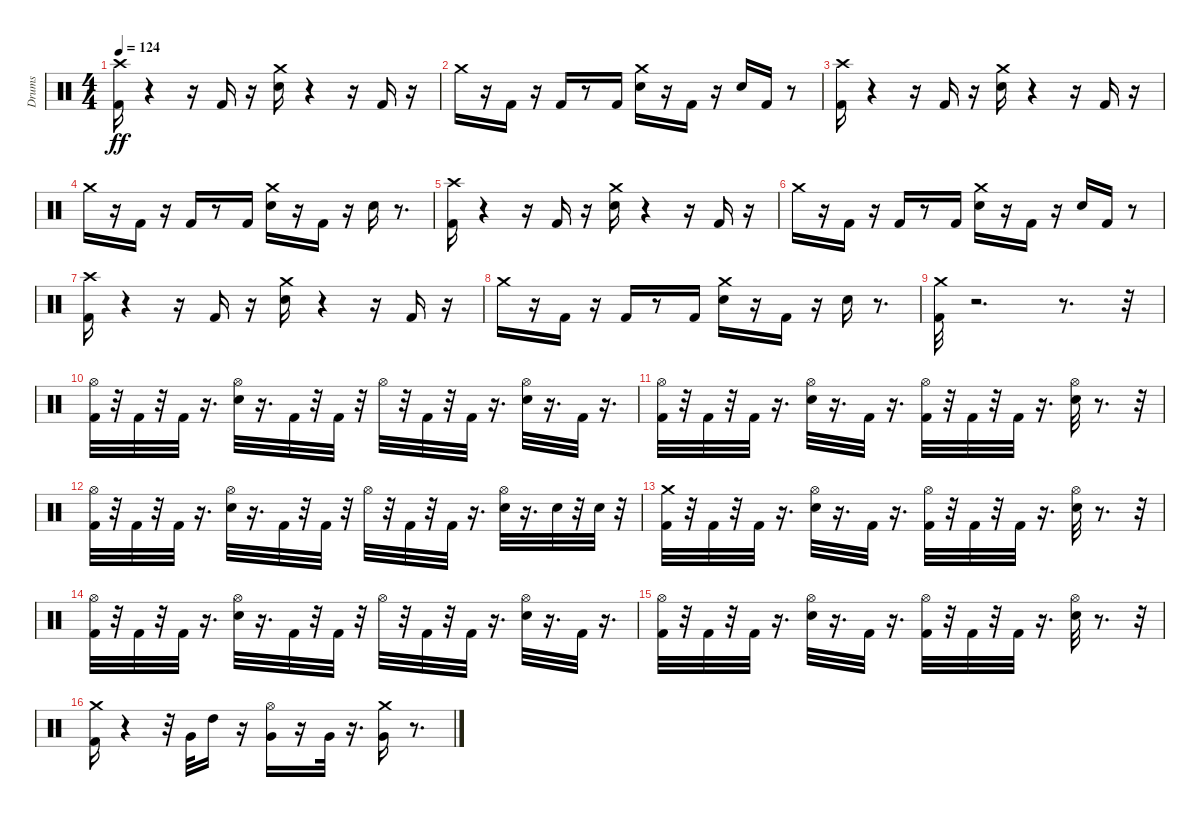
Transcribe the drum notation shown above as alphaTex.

\track ("Drums" "Drums") {instrument percussion}
\staff {score}
\articulation defaults
\ts (4 4)
\tempo 124
\clef neutral
\ks c
("Crash high (hit)" "Kick (hit) 2").16{dy ff} r.4 r.16 "Kick (hit) 2".16 r.16 ("Crash medium (hit)" "Electric Snare (hit)").16 r.4 r.16 "Kick (hit) 2".16 r.16 |
"Crash medium (hit)".16 r.16 "Kick (hit) 2".16 r.16 "Kick (hit) 2".16 r.8 "Kick (hit) 2".16 ("Crash medium (hit)" "Electric Snare (hit)").16 r.16 "Kick (hit) 2".16 r.16 "Electric Snare (hit)".16 "Kick (hit) 2".16 r.8 |
("Kick (hit) 2" "Crash high (hit)").16 r.4 r.16 "Kick (hit) 2".16 r.16 ("Crash medium (hit)" "Electric Snare (hit)").16 r.4 r.16 "Kick (hit) 2".16 r.16 |
"Crash medium (hit)".16 r.16 "Kick (hit) 2".16 r.16 "Kick (hit) 2".16 r.8 "Kick (hit) 2".16 ("Crash medium (hit)" "Electric Snare (hit)").16 r.16 "Kick (hit) 2".16 r.16 "Electric Snare (hit)".16 r.8{d} |
("Crash high (hit)" "Kick (hit) 2").16 r.4 r.16 "Kick (hit) 2".16 r.16 ("Crash medium (hit)" "Electric Snare (hit)").16 r.4 r.16 "Kick (hit) 2".16 r.16 |
"Crash medium (hit)".16 r.16 "Kick (hit) 2".16 r.16 "Kick (hit) 2".16 r.8 "Kick (hit) 2".16 ("Crash medium (hit)" "Electric Snare (hit)").16 r.16 "Kick (hit) 2".16 r.16 "Electric Snare (hit)".16 "Kick (hit) 2".16 r.8 |
("Crash high (hit)" "Kick (hit) 2").16 r.4 r.16 "Kick (hit) 2".16 r.16 ("Crash medium (hit)" "Electric Snare (hit)").16 r.4 r.16 "Kick (hit) 2".16 r.16 |
"Crash medium (hit)".16 r.16 "Kick (hit) 2".16 r.16 "Kick (hit) 2".16 r.8 "Kick (hit) 2".16 ("Crash medium (hit)" "Electric Snare (hit)").16 r.16 "Kick (hit) 2".16 r.16 "Electric Snare (hit)".16 r.8{d} |
("Crash medium (hit)" "Kick (hit) 2").32 r.2{d} r.8{d} r.32 |
("Kick (hit) 2" "Hi-Hat (open)").32 r.32 "Kick (hit) 2".32 r.32 "Kick (hit) 2".32 r.16{d} ("Electric Snare (hit)" "Hi-Hat (open)").32 r.16{d} "Kick (hit) 2".32 r.32 "Kick (hit) 2".32 r.32 "Hi-Hat (open)".32 r.32 "Kick (hit) 2".32 r.32 "Kick (hit) 2".32 r.16{d} ("Electric Snare (hit)" "Hi-Hat (open)").32 r.16{d} "Kick (hit) 2".32 r.16{d} |
("Hi-Hat (open)" "Kick (hit) 2").32 r.32 "Kick (hit) 2".32 r.32 "Kick (hit) 2".32 r.16{d} ("Hi-Hat (open)" "Electric Snare (hit)").32 r.16{d} "Kick (hit) 2".32 r.16{d} ("Hi-Hat (open)" "Kick (hit) 2").32 r.32 "Kick (hit) 2".32 r.32 "Kick (hit) 2".32 r.16{d} ("Hi-Hat (open)" "Electric Snare (hit)").32 r.8{d} r.32 |
("Kick (hit) 2" "Hi-Hat (open)").32 r.32 "Kick (hit) 2".32 r.32 "Kick (hit) 2".32 r.16{d} ("Electric Snare (hit)" "Hi-Hat (open)").32 r.16{d} "Kick (hit) 2".32 r.32 "Kick (hit) 2".32 r.32 "Hi-Hat (open)".32 r.32 "Kick (hit) 2".32 r.32 "Kick (hit) 2".32 r.16{d} ("Hi-Hat (open)" "Electric Snare (hit)").32 r.16{d} "Electric Snare (hit)".32 r.32 "Electric Snare (hit)".32 r.32 |
("Crash medium (hit)" "Kick (hit) 2").32 r.32 "Kick (hit) 2".32 r.32 "Kick (hit) 2".32 r.16{d} ("Hi-Hat (open)" "Electric Snare (hit)").32 r.16{d} "Kick (hit) 2".32 r.16{d} ("Kick (hit) 2" "Hi-Hat (open)").32 r.32 "Kick (hit) 2".32 r.32 "Kick (hit) 2".32 r.16{d} ("Hi-Hat (open)" "Electric Snare (hit)").32 r.8{d} r.32 |
("Kick (hit) 2" "Hi-Hat (open)").32 r.32 "Kick (hit) 2".32 r.32 "Kick (hit) 2".32 r.16{d} ("Electric Snare (hit)" "Hi-Hat (open)").32 r.16{d} "Kick (hit) 2".32 r.32 "Kick (hit) 2".32 r.32 "Hi-Hat (open)".32 r.32 "Kick (hit) 2".32 r.32 "Kick (hit) 2".32 r.16{d} ("Electric Snare (hit)" "Hi-Hat (open)").32 r.16{d} "Kick (hit) 2".32 r.16{d} |
("Hi-Hat (open)" "Kick (hit) 2").32 r.32 "Kick (hit) 2".32 r.32 "Kick (hit) 2".32 r.16{d} ("Hi-Hat (open)" "Electric Snare (hit)").32 r.16{d} "Kick (hit) 2".32 r.16{d} ("Hi-Hat (open)" "Kick (hit) 2").32 r.32 "Kick (hit) 2".32 r.32 "Kick (hit) 2".32 r.16{d} ("Hi-Hat (open)" "Electric Snare (hit)").32 r.8{d} r.32 |
("Kick (hit) 2" "Crash medium (hit)").16 r.4 r.32 "Very Low Tom (hit)".32 "High Tom (hit)".16 r.16 ("Hi-Hat (open)" "Very Low Tom (hit)").16 r.16 "Very Low Tom (hit)".32 r.16{d} ("Crash medium (hit)" "Very Low Tom (hit)").16 r.8{d}
